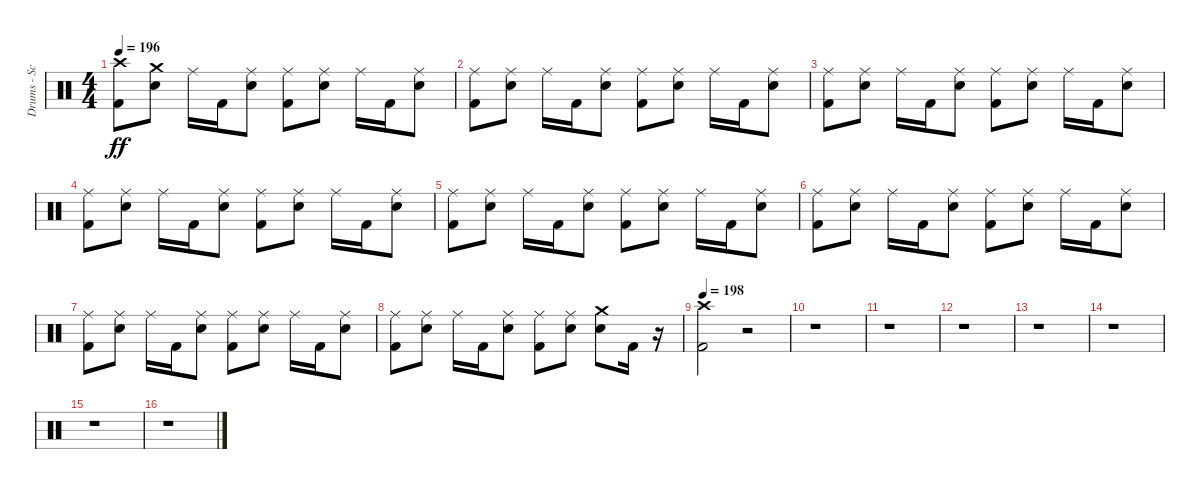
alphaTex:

\track ("Drums - Scott" "Drums - Sc") {instrument percussion}
\staff {score}
\articulation defaults
\ts (4 4)
\tempo 196
\clef neutral
\ks c
("Kick (hit) 2" "Crash high (hit)").8{dy ff} ("Electric Snare (hit)" "Crash medium (hit)").8 "Ride (middle)".16 "Kick (hit) 2".16 ("Electric Snare (hit)" "Ride (middle)").8 ("Kick (hit) 2" "Ride (middle)").8 ("Electric Snare (hit)" "Ride (middle)").8 "Ride (middle)".16 "Kick (hit) 2".16 ("Electric Snare (hit)" "Ride (middle)").8 |
("Kick (hit) 2" "Ride (middle)").8 ("Electric Snare (hit)" "Ride (middle)").8 "Ride (middle)".16 "Kick (hit) 2".16 ("Electric Snare (hit)" "Ride (middle)").8 ("Kick (hit) 2" "Ride (middle)").8 ("Electric Snare (hit)" "Ride (middle)").8 "Ride (middle)".16 "Kick (hit) 2".16 ("Electric Snare (hit)" "Ride (middle)").8 |
("Kick (hit) 2" "Ride (middle)").8 ("Electric Snare (hit)" "Ride (middle)").8 "Ride (middle)".16 "Kick (hit) 2".16 ("Electric Snare (hit)" "Ride (middle)").8 ("Kick (hit) 2" "Ride (middle)").8 ("Electric Snare (hit)" "Ride (middle)").8 "Ride (middle)".16 "Kick (hit) 2".16 ("Electric Snare (hit)" "Ride (middle)").8 |
("Kick (hit) 2" "Ride (middle)").8 ("Electric Snare (hit)" "Ride (middle)").8 "Ride (middle)".16 "Kick (hit) 2".16 ("Electric Snare (hit)" "Ride (middle)").8 ("Kick (hit) 2" "Ride (middle)").8 ("Electric Snare (hit)" "Ride (middle)").8 "Ride (middle)".16 "Kick (hit) 2".16 ("Electric Snare (hit)" "Ride (middle)").8 |
("Kick (hit) 2" "Ride (middle)").8 ("Electric Snare (hit)" "Ride (middle)").8 "Ride (middle)".16 "Kick (hit) 2".16 ("Electric Snare (hit)" "Ride (middle)").8 ("Kick (hit) 2" "Ride (middle)").8 ("Electric Snare (hit)" "Ride (middle)").8 "Ride (middle)".16 "Kick (hit) 2".16 ("Electric Snare (hit)" "Ride (middle)").8 |
("Kick (hit) 2" "Ride (middle)").8 ("Electric Snare (hit)" "Ride (middle)").8 "Ride (middle)".16 "Kick (hit) 2".16 ("Electric Snare (hit)" "Ride (middle)").8 ("Kick (hit) 2" "Ride (middle)").8 ("Electric Snare (hit)" "Ride (middle)").8 "Ride (middle)".16 "Kick (hit) 2".16 ("Electric Snare (hit)" "Ride (middle)").8 |
("Kick (hit) 2" "Ride (middle)").8 ("Electric Snare (hit)" "Ride (middle)").8 "Ride (middle)".16 "Kick (hit) 2".16 ("Electric Snare (hit)" "Ride (middle)").8 ("Kick (hit) 2" "Ride (middle)").8 ("Electric Snare (hit)" "Ride (middle)").8 "Ride (middle)".16 "Kick (hit) 2".16 ("Electric Snare (hit)" "Ride (middle)").8 |
("Kick (hit) 2" "Ride (middle)").8 ("Electric Snare (hit)" "Ride (middle)").8 "Ride (middle)".16 "Kick (hit) 2".16 ("Electric Snare (hit)" "Ride (middle)").8 ("Kick (hit) 2" "Ride (middle)").8 ("Electric Snare (hit)" "Ride (middle)").8 ("Electric Snare (hit)" "Crash medium (hit)").8 "Kick (hit) 2".16 r.16 |
\tempo 198
("Kick (hit) 2" "Crash high (hit)").2 r.2 |
r.1 |
r.1 |
r.1 |
r.1 |
r.1 |
r.1 |
r.1
